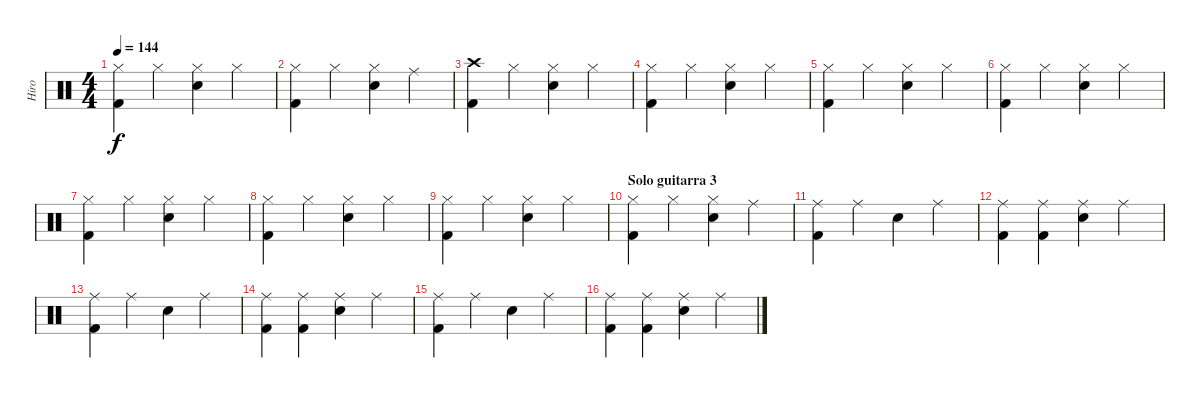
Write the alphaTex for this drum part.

\track ("Hiro" "Hiro") {instrument percussion}
\staff {score}
\articulation defaults
\ts (4 4)
\tempo 144
\clef neutral
\ks c
("Hi-Hat (closed)" "Kick (hit) 2").4{dy f} "Hi-Hat (closed)".4 ("Snare (hit) 2" "Hi-Hat (closed)").4 "Hi-Hat (closed)".4 |
("Kick (hit) 2" "Hi-Hat (closed)").4 "Hi-Hat (closed)".4 ("Snare (hit) 2" "Hi-Hat (closed)").4 "Ride (middle)".4 |
("Crash high (hit)" "Kick (hit) 2").4 "Hi-Hat (closed)".4 ("Snare (hit) 2" "Hi-Hat (closed)").4 "Hi-Hat (closed)".4 |
("Kick (hit) 2" "Hi-Hat (closed)").4 "Hi-Hat (closed)".4 ("Hi-Hat (closed)" "Snare (hit) 2").4 "Hi-Hat (closed)".4 |
("Hi-Hat (closed)" "Kick (hit) 2").4 "Hi-Hat (closed)".4 ("Snare (hit) 2" "Hi-Hat (closed)").4 "Hi-Hat (closed)".4 |
("Hi-Hat (closed)" "Kick (hit) 2").4 "Hi-Hat (closed)".4 ("Snare (hit) 2" "Hi-Hat (closed)").4 "Hi-Hat (closed)".4 |
("Kick (hit) 2" "Hi-Hat (closed)").4 "Hi-Hat (closed)".4 ("Hi-Hat (closed)" "Snare (hit) 2").4 "Hi-Hat (closed)".4 |
("Hi-Hat (closed)" "Kick (hit) 2").4 "Hi-Hat (closed)".4 ("Hi-Hat (closed)" "Snare (hit) 2").4 "Hi-Hat (closed)".4 |
("Hi-Hat (closed)" "Kick (hit) 2").4 "Hi-Hat (closed)".4 ("Snare (hit) 2" "Hi-Hat (closed)").4 "Hi-Hat (closed)".4 |
\section ("" "Solo guitarra 3")
("Hi-Hat (closed)" "Kick (hit) 2").4 "Hi-Hat (closed)".4 ("Snare (hit) 2" "Hi-Hat (closed)").4 "Ride (middle)".4 |
("Kick (hit) 2" "Ride (middle)").4 "Ride (middle)".4 "Snare (hit) 2".4 "Ride (middle)".4 |
("Ride (middle)" "Kick (hit) 2").4 ("Ride (middle)" "Kick (hit) 2").4 ("Ride (middle)" "Snare (hit) 2").4 "Ride (middle)".4 |
("Ride (middle)" "Kick (hit) 2").4 "Ride (middle)".4 "Snare (hit) 2".4 "Ride (middle)".4 |
("Ride (middle)" "Kick (hit) 2").4 ("Ride (middle)" "Kick (hit) 2").4 ("Ride (middle)" "Snare (hit) 2").4 "Ride (middle)".4 |
("Ride (middle)" "Kick (hit) 2").4 "Ride (middle)".4 "Snare (hit) 2".4 "Ride (middle)".4 |
("Ride (middle)" "Kick (hit) 2").4 ("Ride (middle)" "Kick (hit) 2").4 ("Ride (middle)" "Snare (hit) 2").4 "Ride (middle)".4
